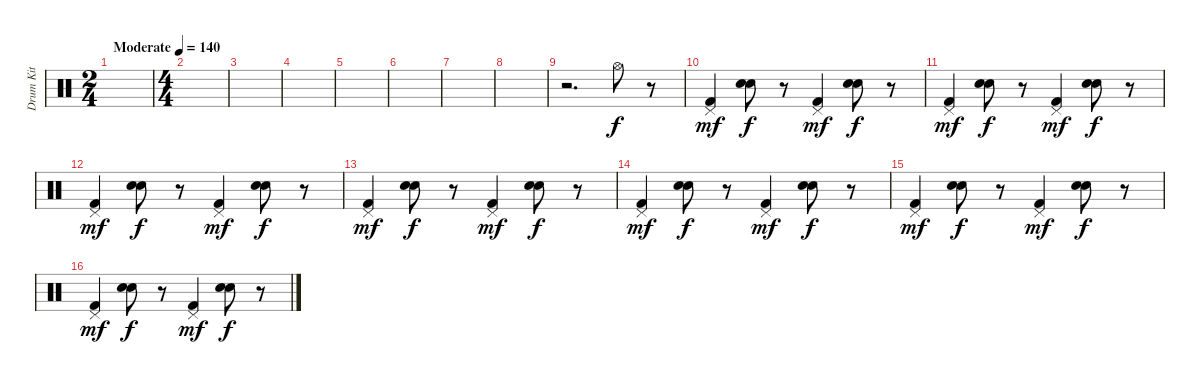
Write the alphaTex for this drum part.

\track ("Drum Kit" "Drum Kit") {instrument percussion}
\staff {score}
\articulation defaults
\ts (2 4)
\tempo (140 "Moderate")
\clef neutral
\ks c
|
\ts (4 4)
|
|
|
|
|
|
|
r.2{d} "Hi-Hat (open)".8 r.8 |
("Pedal Hi-Hat (hit)" "Kick (hit) 2").4{dy mf} ("Hand Clap (hit)" "Hand Clap (hit)").8{dy f} r.8 ("Pedal Hi-Hat (hit)" "Kick (hit) 2").4{dy mf} ("Hand Clap (hit)" "Hand Clap (hit)").8{dy f} r.8 |
("Pedal Hi-Hat (hit)" "Kick (hit) 2").4{dy mf} ("Hand Clap (hit)" "Hand Clap (hit)").8{dy f} r.8 ("Pedal Hi-Hat (hit)" "Kick (hit) 2").4{dy mf} ("Hand Clap (hit)" "Hand Clap (hit)").8{dy f} r.8 |
("Pedal Hi-Hat (hit)" "Kick (hit) 2").4{dy mf} ("Hand Clap (hit)" "Hand Clap (hit)").8{dy f} r.8 ("Pedal Hi-Hat (hit)" "Kick (hit) 2").4{dy mf} ("Hand Clap (hit)" "Hand Clap (hit)").8{dy f} r.8 |
("Pedal Hi-Hat (hit)" "Kick (hit) 2").4{dy mf} ("Hand Clap (hit)" "Hand Clap (hit)").8{dy f} r.8 ("Pedal Hi-Hat (hit)" "Kick (hit) 2").4{dy mf} ("Hand Clap (hit)" "Hand Clap (hit)").8{dy f} r.8 |
("Pedal Hi-Hat (hit)" "Kick (hit) 2").4{dy mf} ("Hand Clap (hit)" "Hand Clap (hit)").8{dy f} r.8 ("Pedal Hi-Hat (hit)" "Kick (hit) 2").4{dy mf} ("Hand Clap (hit)" "Hand Clap (hit)").8{dy f} r.8 |
("Pedal Hi-Hat (hit)" "Kick (hit) 2").4{dy mf} ("Hand Clap (hit)" "Hand Clap (hit)").8{dy f} r.8 ("Pedal Hi-Hat (hit)" "Kick (hit) 2").4{dy mf} ("Hand Clap (hit)" "Hand Clap (hit)").8{dy f} r.8 |
("Pedal Hi-Hat (hit)" "Kick (hit) 2").4{dy mf} ("Hand Clap (hit)" "Hand Clap (hit)").8{dy f} r.8 ("Pedal Hi-Hat (hit)" "Kick (hit) 2").4{dy mf} ("Hand Clap (hit)" "Hand Clap (hit)").8{dy f} r.8
